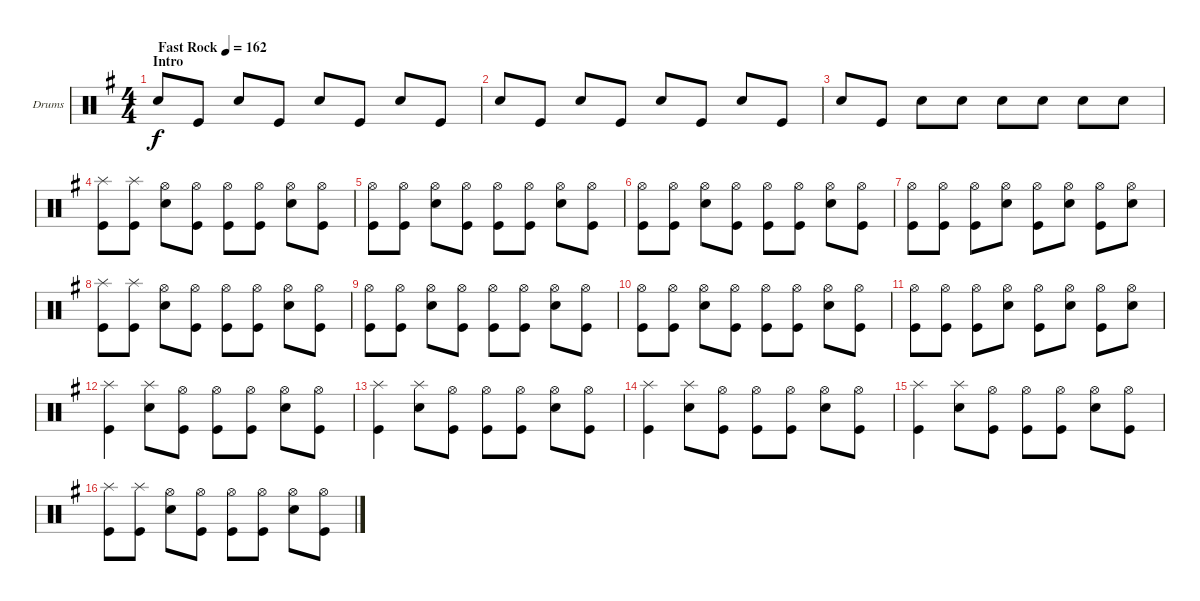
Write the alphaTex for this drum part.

\defaultSystemsLayout 4
\bracketExtendMode groupsimilarinstruments
\firstSystemTrackNameOrientation horizontal
\otherSystemsTrackNameOrientation horizontal
\track ("Drumkit" "Drums") {instrument percussion}
\staff {score}
\articulation defaults
\ts (4 4)
\section ("" "Intro")
\tempo (162 "Fast Rock")
\clef neutral
\ks g "Snare (hit) 2".8{dy f} "Kick (hit)".8 "Snare (hit) 2".8 "Kick (hit)".8 "Snare (hit) 2".8 "Kick (hit)".8 "Snare (hit) 2".8 "Kick (hit)".8
|
"Snare (hit) 2".8 "Kick (hit)".8 "Snare (hit) 2".8 "Kick (hit)".8 "Snare (hit) 2".8 "Kick (hit)".8 "Snare (hit) 2".8 "Kick (hit)".8 |
"Snare (hit) 2".8 "Kick (hit)".8 "Snare (hit) 2".8 "Snare (hit) 2".8 "Snare (hit) 2".8 "Snare (hit) 2".8 "Snare (hit) 2".8 "Snare (hit) 2".8 |
("Splash (hit)" "Kick (hit)").8 ("Splash (hit)" "Kick (hit)").8 ("Hi-Hat (open)" "Snare (hit) 2").8 ("Hi-Hat (open)" "Kick (hit)").8 ("Hi-Hat (open)" "Kick (hit)").8 ("Hi-Hat (open)" "Kick (hit)").8 ("Hi-Hat (open)" "Snare (hit) 2").8 ("Hi-Hat (open)" "Kick (hit)").8 |
("Hi-Hat (open)" "Kick (hit)").8 ("Hi-Hat (open)" "Kick (hit)").8 ("Hi-Hat (open)" "Snare (hit) 2").8 ("Hi-Hat (open)" "Kick (hit)").8 ("Hi-Hat (open)" "Kick (hit)").8 ("Hi-Hat (open)" "Kick (hit)").8 ("Hi-Hat (open)" "Snare (hit) 2").8 ("Hi-Hat (open)" "Kick (hit)").8 |
("Hi-Hat (open)" "Kick (hit)").8 ("Hi-Hat (open)" "Kick (hit)").8 ("Hi-Hat (open)" "Snare (hit) 2").8 ("Hi-Hat (open)" "Kick (hit)").8 ("Hi-Hat (open)" "Kick (hit)").8 ("Hi-Hat (open)" "Kick (hit)").8 ("Hi-Hat (open)" "Snare (hit) 2").8 ("Hi-Hat (open)" "Kick (hit)").8 |
("Hi-Hat (open)" "Kick (hit)").8 ("Hi-Hat (open)" "Kick (hit)").8 ("Hi-Hat (open)" "Kick (hit)").8 ("Hi-Hat (open)" "Snare (hit) 2").8 ("Hi-Hat (open)" "Kick (hit)").8 ("Hi-Hat (open)" "Snare (hit) 2").8 ("Hi-Hat (open)" "Kick (hit)").8 ("Hi-Hat (open)" "Snare (hit) 2").8 |
("Splash (hit)" "Kick (hit)").8 ("Splash (hit)" "Kick (hit)").8 ("Hi-Hat (open)" "Snare (hit) 2").8 ("Hi-Hat (open)" "Kick (hit)").8 ("Hi-Hat (open)" "Kick (hit)").8 ("Hi-Hat (open)" "Kick (hit)").8 ("Hi-Hat (open)" "Snare (hit) 2").8 ("Hi-Hat (open)" "Kick (hit)").8 |
("Hi-Hat (open)" "Kick (hit)").8 ("Hi-Hat (open)" "Kick (hit)").8 ("Hi-Hat (open)" "Snare (hit) 2").8 ("Hi-Hat (open)" "Kick (hit)").8 ("Hi-Hat (open)" "Kick (hit)").8 ("Hi-Hat (open)" "Kick (hit)").8 ("Hi-Hat (open)" "Snare (hit) 2").8 ("Hi-Hat (open)" "Kick (hit)").8 |
("Hi-Hat (open)" "Kick (hit)").8 ("Hi-Hat (open)" "Kick (hit)").8 ("Hi-Hat (open)" "Snare (hit) 2").8 ("Hi-Hat (open)" "Kick (hit)").8 ("Hi-Hat (open)" "Kick (hit)").8 ("Hi-Hat (open)" "Kick (hit)").8 ("Hi-Hat (open)" "Snare (hit) 2").8 ("Hi-Hat (open)" "Kick (hit)").8 |
("Hi-Hat (open)" "Kick (hit)").8 ("Hi-Hat (open)" "Kick (hit)").8 ("Hi-Hat (open)" "Kick (hit)").8 ("Hi-Hat (open)" "Snare (hit) 2").8 ("Hi-Hat (open)" "Kick (hit)").8 ("Hi-Hat (open)" "Snare (hit) 2").8 ("Hi-Hat (open)" "Kick (hit)").8 ("Hi-Hat (open)" "Snare (hit) 2").8 |
("Splash (hit)" "Kick (hit)").4 ("Splash (hit)" "Snare (hit) 2").8 ("Hi-Hat (open)" "Kick (hit)").8 ("Hi-Hat (open)" "Kick (hit)").8 ("Hi-Hat (open)" "Kick (hit)").8 ("Hi-Hat (open)" "Snare (hit) 2").8 ("Hi-Hat (open)" "Kick (hit)").8 |
("Splash (hit)" "Kick (hit)").4 ("Splash (hit)" "Snare (hit) 2").8 ("Hi-Hat (open)" "Kick (hit)").8 ("Hi-Hat (open)" "Kick (hit)").8 ("Hi-Hat (open)" "Kick (hit)").8 ("Hi-Hat (open)" "Snare (hit) 2").8 ("Hi-Hat (open)" "Kick (hit)").8 |
("Splash (hit)" "Kick (hit)").4 ("Splash (hit)" "Snare (hit) 2").8 ("Hi-Hat (open)" "Kick (hit)").8 ("Hi-Hat (open)" "Kick (hit)").8 ("Hi-Hat (open)" "Kick (hit)").8 ("Hi-Hat (open)" "Snare (hit) 2").8 ("Hi-Hat (open)" "Kick (hit)").8 |
("Splash (hit)" "Kick (hit)").4 ("Splash (hit)" "Snare (hit) 2").8 ("Hi-Hat (open)" "Kick (hit)").8 ("Hi-Hat (open)" "Kick (hit)").8 ("Hi-Hat (open)" "Kick (hit)").8 ("Hi-Hat (open)" "Snare (hit) 2").8 ("Hi-Hat (open)" "Kick (hit)").8 |
("Splash (hit)" "Kick (hit)").8 ("Splash (hit)" "Kick (hit)").8 ("Hi-Hat (open)" "Snare (hit) 2").8 ("Hi-Hat (open)" "Kick (hit)").8 ("Hi-Hat (open)" "Kick (hit)").8 ("Hi-Hat (open)" "Kick (hit)").8 ("Hi-Hat (open)" "Snare (hit) 2").8 ("Hi-Hat (open)" "Kick (hit)").8
